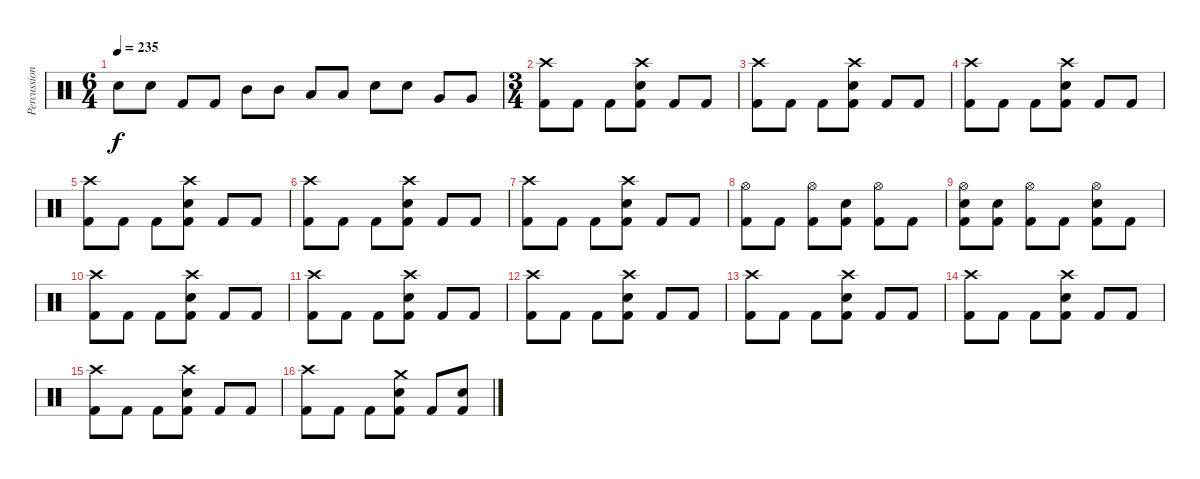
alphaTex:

\track ("Percussion" "Percussion") {instrument percussion}
\staff {score}
\articulation defaults
\ts (6 4)
\tempo 235
\clef neutral
\ks c "Electric Snare (hit)".8{dy f} "Electric Snare (hit)".8 "Kick (hit) 2".8 "Kick (hit) 2".8 "Mid Tom (hit)".8 "Mid Tom (hit)".8 "Low Tom (hit)".8 "Low Tom (hit)".8 "Electric Snare (hit)".8 "Electric Snare (hit)".8 "Very Low Tom (hit)".8 "Very Low Tom (hit)".8
|
\ts (3 4)
("Crash high (hit)" "Kick (hit) 2").8 "Kick (hit) 2".8 "Kick (hit) 2".8 ("Crash high (hit)" "Electric Snare (hit)" "Kick (hit) 2").8 "Kick (hit) 2".8 "Kick (hit) 2".8 |
("Crash high (hit)" "Kick (hit) 2").8 "Kick (hit) 2".8 "Kick (hit) 2".8 ("Crash high (hit)" "Electric Snare (hit)" "Kick (hit) 2").8 "Kick (hit) 2".8 "Kick (hit) 2".8 |
("Crash high (hit)" "Kick (hit) 2").8 "Kick (hit) 2".8 "Kick (hit) 2".8 ("Crash high (hit)" "Electric Snare (hit)" "Kick (hit) 2").8 "Kick (hit) 2".8 "Kick (hit) 2".8 |
("Crash high (hit)" "Kick (hit) 2").8 "Kick (hit) 2".8 "Kick (hit) 2".8 ("Crash high (hit)" "Electric Snare (hit)" "Kick (hit) 2").8 "Kick (hit) 2".8 "Kick (hit) 2".8 |
("Crash high (hit)" "Kick (hit) 2").8 "Kick (hit) 2".8 "Kick (hit) 2".8 ("Crash high (hit)" "Electric Snare (hit)" "Kick (hit) 2").8 "Kick (hit) 2".8 "Kick (hit) 2".8 |
("Crash high (hit)" "Kick (hit) 2").8 "Kick (hit) 2".8 "Kick (hit) 2".8 ("Crash high (hit)" "Electric Snare (hit)" "Kick (hit) 2").8 "Kick (hit) 2".8 "Kick (hit) 2".8 |
("Hi-Hat (open)" "Kick (hit) 2").8 "Kick (hit) 2".8 ("Hi-Hat (open)" "Kick (hit) 2").8 ("Electric Snare (hit)" "Kick (hit) 2").8 ("Hi-Hat (open)" "Kick (hit) 2").8 "Kick (hit) 2".8 |
("Hi-Hat (open)" "Electric Snare (hit)" "Kick (hit) 2").8 ("Electric Snare (hit)" "Kick (hit) 2").8 ("Hi-Hat (open)" "Kick (hit) 2").8 "Kick (hit) 2".8 ("Hi-Hat (open)" "Electric Snare (hit)" "Kick (hit) 2").8 "Kick (hit) 2".8 |
("Crash high (hit)" "Kick (hit) 2").8 "Kick (hit) 2".8 "Kick (hit) 2".8 ("Crash high (hit)" "Electric Snare (hit)" "Kick (hit) 2").8 "Kick (hit) 2".8 "Kick (hit) 2".8 |
("Crash high (hit)" "Kick (hit) 2").8 "Kick (hit) 2".8 "Kick (hit) 2".8 ("Crash high (hit)" "Electric Snare (hit)" "Kick (hit) 2").8 "Kick (hit) 2".8 "Kick (hit) 2".8 |
("Crash high (hit)" "Kick (hit) 2").8 "Kick (hit) 2".8 "Kick (hit) 2".8 ("Crash high (hit)" "Electric Snare (hit)" "Kick (hit) 2").8 "Kick (hit) 2".8 "Kick (hit) 2".8 |
("Crash high (hit)" "Kick (hit) 2").8 "Kick (hit) 2".8 "Kick (hit) 2".8 ("Crash high (hit)" "Electric Snare (hit)" "Kick (hit) 2").8 "Kick (hit) 2".8 "Kick (hit) 2".8 |
("Crash high (hit)" "Kick (hit) 2").8 "Kick (hit) 2".8 "Kick (hit) 2".8 ("Crash high (hit)" "Electric Snare (hit)" "Kick (hit) 2").8 "Kick (hit) 2".8 "Kick (hit) 2".8 |
("Crash high (hit)" "Kick (hit) 2").8 "Kick (hit) 2".8 "Kick (hit) 2".8 ("Crash high (hit)" "Electric Snare (hit)" "Kick (hit) 2").8 "Kick (hit) 2".8 "Kick (hit) 2".8 |
("Crash high (hit)" "Kick (hit) 2").8 "Kick (hit) 2".8 "Kick (hit) 2".8 ("Crash medium (hit)" "Electric Snare (hit)" "Kick (hit) 2").8 "Kick (hit) 2".8 ("Electric Snare (hit)" "Kick (hit) 2").8
